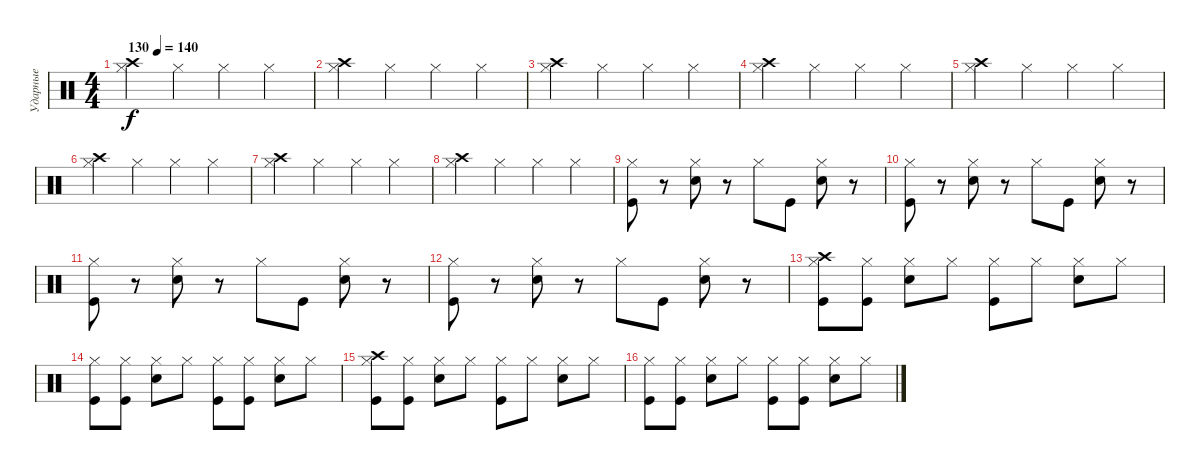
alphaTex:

\track ("Ударные" "Ударные") {solo instrument percussion}
\staff {score}
\articulation defaults
\ts (4 4)
\tempo (140 "130")
\clef neutral
\ks c
("Hi-Hat (closed)" "Crash high (hit)").4{dy f} "Hi-Hat (closed)".4 "Hi-Hat (closed)".4 "Hi-Hat (closed)".4 |
("Hi-Hat (closed)" "Crash high (hit)").4 "Hi-Hat (closed)".4 "Hi-Hat (closed)".4 "Hi-Hat (closed)".4 |
("Hi-Hat (closed)" "Crash high (hit)").4 "Hi-Hat (closed)".4 "Hi-Hat (closed)".4 "Hi-Hat (closed)".4 |
("Hi-Hat (closed)" "Crash high (hit)").4 "Hi-Hat (closed)".4 "Hi-Hat (closed)".4 "Hi-Hat (closed)".4 |
("Hi-Hat (closed)" "Crash high (hit)").4 "Hi-Hat (closed)".4 "Hi-Hat (closed)".4 "Hi-Hat (closed)".4 |
("Hi-Hat (closed)" "Crash high (hit)").4 "Hi-Hat (closed)".4 "Hi-Hat (closed)".4 "Hi-Hat (closed)".4 |
("Hi-Hat (closed)" "Crash high (hit)").4 "Hi-Hat (closed)".4 "Hi-Hat (closed)".4 "Hi-Hat (closed)".4 |
("Hi-Hat (closed)" "Crash high (hit)").4 "Hi-Hat (closed)".4 "Hi-Hat (closed)".4 "Hi-Hat (closed)".4 |
("Kick (hit)" "Hi-Hat (closed)").8 r.8 ("Snare (hit) 2" "Hi-Hat (closed)").8 r.8 "Hi-Hat (closed)".8 "Kick (hit)".8 ("Snare (hit) 2" "Hi-Hat (closed)").8 r.8 |
("Kick (hit)" "Hi-Hat (closed)").8 r.8 ("Snare (hit) 2" "Hi-Hat (closed)").8 r.8 "Hi-Hat (closed)".8 "Kick (hit)".8 ("Snare (hit) 2" "Hi-Hat (closed)").8 r.8 |
("Kick (hit)" "Hi-Hat (closed)").8 r.8 ("Snare (hit) 2" "Hi-Hat (closed)").8 r.8 "Hi-Hat (closed)".8 "Kick (hit)".8 ("Snare (hit) 2" "Hi-Hat (closed)").8 r.8 |
("Kick (hit)" "Hi-Hat (closed)").8 r.8 ("Snare (hit) 2" "Hi-Hat (closed)").8 r.8 "Hi-Hat (closed)".8 "Kick (hit)".8 ("Snare (hit) 2" "Hi-Hat (closed)").8 r.8 |
("Kick (hit)" "Hi-Hat (closed)" "Crash high (hit)").8 ("Kick (hit)" "Hi-Hat (closed)").8 ("Snare (hit) 2" "Hi-Hat (closed)").8 "Hi-Hat (closed)".8 ("Kick (hit)" "Hi-Hat (closed)").8 "Hi-Hat (closed)".8 ("Snare (hit) 2" "Hi-Hat (closed)").8 "Hi-Hat (closed)".8 |
("Kick (hit)" "Hi-Hat (closed)").8 ("Kick (hit)" "Hi-Hat (closed)").8 ("Snare (hit) 2" "Hi-Hat (closed)").8 "Hi-Hat (closed)".8 ("Kick (hit)" "Hi-Hat (closed)").8 ("Kick (hit)" "Hi-Hat (closed)").8 ("Snare (hit) 2" "Hi-Hat (closed)").8 "Hi-Hat (closed)".8 |
("Kick (hit)" "Hi-Hat (closed)" "Crash high (hit)").8 ("Kick (hit)" "Hi-Hat (closed)").8 ("Snare (hit) 2" "Hi-Hat (closed)").8 "Hi-Hat (closed)".8 ("Kick (hit)" "Hi-Hat (closed)").8 "Hi-Hat (closed)".8 ("Snare (hit) 2" "Hi-Hat (closed)").8 "Hi-Hat (closed)".8 |
("Kick (hit)" "Hi-Hat (closed)").8 ("Kick (hit)" "Hi-Hat (closed)").8 ("Snare (hit) 2" "Hi-Hat (closed)").8 "Hi-Hat (closed)".8 ("Kick (hit)" "Hi-Hat (closed)").8 ("Kick (hit)" "Hi-Hat (closed)").8 ("Snare (hit) 2" "Hi-Hat (closed)").8 "Hi-Hat (closed)".8
